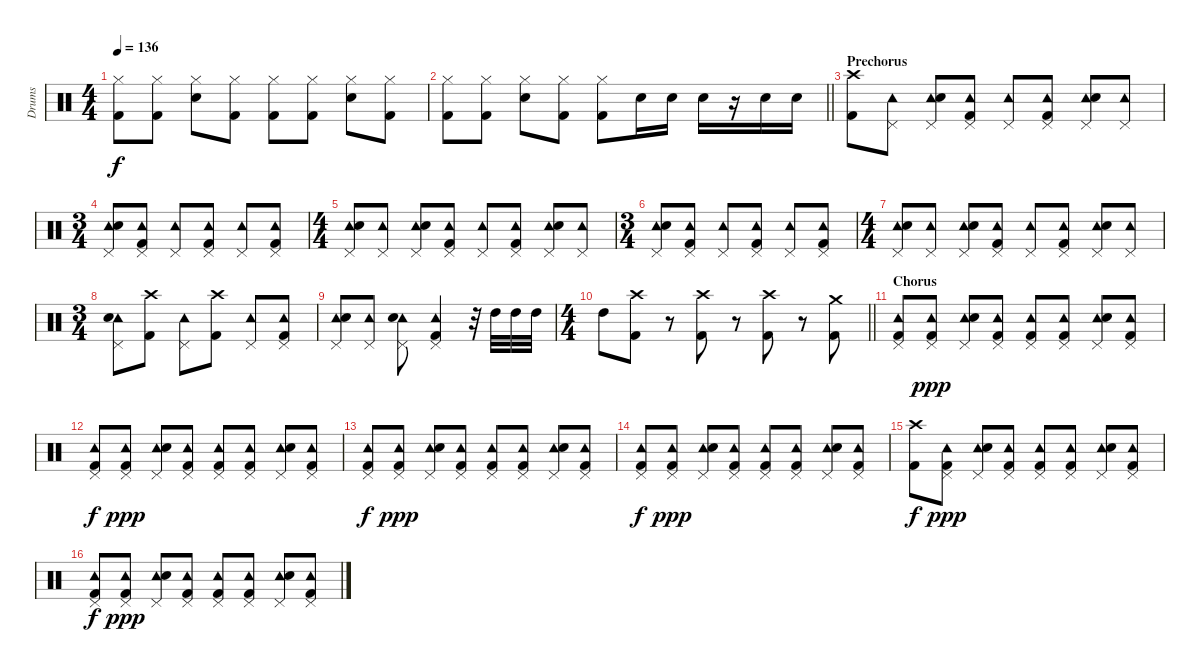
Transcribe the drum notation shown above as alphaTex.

\track ("Drums" "Drums") {instrument percussion}
\staff {score}
\articulation defaults
\ts (4 4)
\tempo 136
\clef neutral
\ks c
("Hi-Hat (closed)" "Kick (hit) 2").8{dy f} ("Hi-Hat (closed)" "Kick (hit) 2").8 ("Hi-Hat (closed)" "Snare (hit) 2").8 ("Hi-Hat (closed)" "Kick (hit) 2").8 ("Hi-Hat (closed)" "Kick (hit) 2").8 ("Hi-Hat (closed)" "Kick (hit) 2").8 ("Hi-Hat (closed)" "Snare (hit) 2").8 ("Hi-Hat (closed)" "Kick (hit) 2").8 |
\barLineRight lightlight
("Hi-Hat (closed)" "Kick (hit) 2").8 ("Hi-Hat (closed)" "Kick (hit) 2").8 ("Hi-Hat (closed)" "Snare (hit) 2").8 ("Hi-Hat (closed)" "Kick (hit) 2").8 ("Hi-Hat (closed)" "Kick (hit) 2").8 "Snare (hit) 2".16 "Snare (hit) 2".16 "Snare (hit) 2".16 r.16 "Snare (hit) 2".16 "Snare (hit) 2".16 |
\section ("" "Prechorus")
("Crash high (hit)" "Kick (hit) 2").8 ("Pedal Hi-Hat (hit)" "Tambourine (hit)").8 ("Pedal Hi-Hat (hit)" "Tambourine (hit)" "Snare (hit) 2").8 ("Pedal Hi-Hat (hit)" "Tambourine (hit)" "Kick (hit) 2").8 ("Pedal Hi-Hat (hit)" "Tambourine (hit)").8 ("Pedal Hi-Hat (hit)" "Tambourine (hit)" "Kick (hit) 2").8 ("Pedal Hi-Hat (hit)" "Tambourine (hit)" "Snare (hit) 2").8 ("Pedal Hi-Hat (hit)" "Tambourine (hit)").8 |
\ts (3 4)
("Pedal Hi-Hat (hit)" "Tambourine (hit)" "Snare (hit) 2").8 ("Pedal Hi-Hat (hit)" "Tambourine (hit)" "Kick (hit) 2").8 ("Pedal Hi-Hat (hit)" "Tambourine (hit)").8 ("Pedal Hi-Hat (hit)" "Tambourine (hit)" "Kick (hit) 2").8 ("Pedal Hi-Hat (hit)" "Tambourine (hit)").8 ("Pedal Hi-Hat (hit)" "Tambourine (hit)" "Kick (hit) 2").8 |
\ts (4 4)
("Pedal Hi-Hat (hit)" "Tambourine (hit)" "Snare (hit) 2").8 ("Pedal Hi-Hat (hit)" "Tambourine (hit)").8 ("Pedal Hi-Hat (hit)" "Tambourine (hit)" "Snare (hit) 2").8 ("Pedal Hi-Hat (hit)" "Tambourine (hit)" "Kick (hit) 2").8 ("Pedal Hi-Hat (hit)" "Tambourine (hit)").8 ("Pedal Hi-Hat (hit)" "Tambourine (hit)" "Kick (hit) 2").8 ("Pedal Hi-Hat (hit)" "Tambourine (hit)" "Snare (hit) 2").8 ("Pedal Hi-Hat (hit)" "Tambourine (hit)").8 |
\ts (3 4)
("Pedal Hi-Hat (hit)" "Tambourine (hit)" "Snare (hit) 2").8 ("Pedal Hi-Hat (hit)" "Tambourine (hit)" "Kick (hit) 2").8 ("Pedal Hi-Hat (hit)" "Tambourine (hit)").8 ("Pedal Hi-Hat (hit)" "Tambourine (hit)" "Kick (hit) 2").8 ("Pedal Hi-Hat (hit)" "Tambourine (hit)").8 ("Pedal Hi-Hat (hit)" "Tambourine (hit)" "Kick (hit) 2").8 |
\ts (4 4)
("Pedal Hi-Hat (hit)" "Tambourine (hit)" "Snare (hit) 2").8 ("Pedal Hi-Hat (hit)" "Tambourine (hit)").8 ("Pedal Hi-Hat (hit)" "Tambourine (hit)" "Snare (hit) 2").8 ("Pedal Hi-Hat (hit)" "Tambourine (hit)" "Kick (hit) 2").8 ("Pedal Hi-Hat (hit)" "Tambourine (hit)").8 ("Pedal Hi-Hat (hit)" "Tambourine (hit)" "Kick (hit) 2").8 ("Pedal Hi-Hat (hit)" "Tambourine (hit)" "Snare (hit) 2").8 ("Pedal Hi-Hat (hit)" "Tambourine (hit)").8 |
\ts (3 4)
("Pedal Hi-Hat (hit)" "Tambourine (hit)" "Snare (hit) 2").8 ("Crash high (hit)" "Kick (hit) 2").8 ("Pedal Hi-Hat (hit)" "Tambourine (hit)").8 ("Crash high (hit)" "Kick (hit) 2").8 ("Pedal Hi-Hat (hit)" "Tambourine (hit)").8 ("Pedal Hi-Hat (hit)" "Tambourine (hit)" "Kick (hit) 2").8 |
("Pedal Hi-Hat (hit)" "Tambourine (hit)" "Snare (hit) 2").8 ("Pedal Hi-Hat (hit)" "Tambourine (hit)").8 ("Pedal Hi-Hat (hit)" "Tambourine (hit)" "Snare (hit) 2").8 ("Pedal Hi-Hat (hit)" "Tambourine (hit)" "Kick (hit) 2").4 r.32 "High Tom (hit)".32 "High Tom (hit)".32 "High Tom (hit)".32 |
\ts (4 4)
\barLineRight lightlight "High Tom (hit)".8
("Crash high (hit)" "Kick (hit) 2").8 r.8 ("Crash high (hit)" "Kick (hit) 2").8 r.8 ("Crash high (hit)" "Kick (hit) 2").8 r.8 ("Crash medium (hit)" "Kick (hit) 2").8 |
\section ("" "Chorus")
("Pedal Hi-Hat (hit)" "Tambourine (hit)" "Kick (hit) 2").8 ("Pedal Hi-Hat (hit)" "Tambourine (hit)" "Kick (hit) 2").8{dy ppp} ("Pedal Hi-Hat (hit)" "Tambourine (hit)" "Snare (hit) 2").8 ("Pedal Hi-Hat (hit)" "Tambourine (hit)" "Kick (hit) 2").8 ("Pedal Hi-Hat (hit)" "Tambourine (hit)" "Kick (hit) 2").8 ("Pedal Hi-Hat (hit)" "Tambourine (hit)" "Kick (hit) 2").8 ("Pedal Hi-Hat (hit)" "Tambourine (hit)" "Snare (hit) 2").8 ("Pedal Hi-Hat (hit)" "Tambourine (hit)" "Kick (hit) 2").8 |
("Pedal Hi-Hat (hit)" "Tambourine (hit)" "Kick (hit) 2").8{dy f} ("Pedal Hi-Hat (hit)" "Tambourine (hit)" "Kick (hit) 2").8{dy ppp} ("Pedal Hi-Hat (hit)" "Tambourine (hit)" "Snare (hit) 2").8 ("Pedal Hi-Hat (hit)" "Tambourine (hit)" "Kick (hit) 2").8 ("Pedal Hi-Hat (hit)" "Tambourine (hit)" "Kick (hit) 2").8 ("Pedal Hi-Hat (hit)" "Tambourine (hit)" "Kick (hit) 2").8 ("Pedal Hi-Hat (hit)" "Tambourine (hit)" "Snare (hit) 2").8 ("Pedal Hi-Hat (hit)" "Tambourine (hit)" "Kick (hit) 2").8 |
("Pedal Hi-Hat (hit)" "Tambourine (hit)" "Kick (hit) 2").8{dy f} ("Pedal Hi-Hat (hit)" "Tambourine (hit)" "Kick (hit) 2").8{dy ppp} ("Pedal Hi-Hat (hit)" "Tambourine (hit)" "Snare (hit) 2").8 ("Pedal Hi-Hat (hit)" "Tambourine (hit)" "Kick (hit) 2").8 ("Pedal Hi-Hat (hit)" "Tambourine (hit)" "Kick (hit) 2").8 ("Pedal Hi-Hat (hit)" "Tambourine (hit)" "Kick (hit) 2").8 ("Pedal Hi-Hat (hit)" "Tambourine (hit)" "Snare (hit) 2").8 ("Pedal Hi-Hat (hit)" "Tambourine (hit)" "Kick (hit) 2").8 |
("Pedal Hi-Hat (hit)" "Tambourine (hit)" "Kick (hit) 2").8{dy f} ("Pedal Hi-Hat (hit)" "Tambourine (hit)" "Kick (hit) 2").8{dy ppp} ("Pedal Hi-Hat (hit)" "Tambourine (hit)" "Snare (hit) 2").8 ("Pedal Hi-Hat (hit)" "Tambourine (hit)" "Kick (hit) 2").8 ("Pedal Hi-Hat (hit)" "Tambourine (hit)" "Kick (hit) 2").8 ("Pedal Hi-Hat (hit)" "Tambourine (hit)" "Kick (hit) 2").8 ("Pedal Hi-Hat (hit)" "Tambourine (hit)" "Snare (hit) 2").8 ("Pedal Hi-Hat (hit)" "Tambourine (hit)" "Kick (hit) 2").8 |
("Crash high (hit)" "Kick (hit) 2").8{dy f} ("Pedal Hi-Hat (hit)" "Tambourine (hit)" "Kick (hit) 2").8{dy ppp} ("Pedal Hi-Hat (hit)" "Tambourine (hit)" "Snare (hit) 2").8 ("Pedal Hi-Hat (hit)" "Tambourine (hit)" "Kick (hit) 2").8 ("Pedal Hi-Hat (hit)" "Tambourine (hit)" "Kick (hit) 2").8 ("Pedal Hi-Hat (hit)" "Tambourine (hit)" "Kick (hit) 2").8 ("Pedal Hi-Hat (hit)" "Tambourine (hit)" "Snare (hit) 2").8 ("Pedal Hi-Hat (hit)" "Tambourine (hit)" "Kick (hit) 2").8 |
("Pedal Hi-Hat (hit)" "Tambourine (hit)" "Kick (hit) 2").8{dy f} ("Pedal Hi-Hat (hit)" "Tambourine (hit)" "Kick (hit) 2").8{dy ppp} ("Pedal Hi-Hat (hit)" "Tambourine (hit)" "Snare (hit) 2").8 ("Pedal Hi-Hat (hit)" "Tambourine (hit)" "Kick (hit) 2").8 ("Pedal Hi-Hat (hit)" "Tambourine (hit)" "Kick (hit) 2").8 ("Pedal Hi-Hat (hit)" "Tambourine (hit)" "Kick (hit) 2").8 ("Pedal Hi-Hat (hit)" "Tambourine (hit)" "Snare (hit) 2").8 ("Pedal Hi-Hat (hit)" "Tambourine (hit)" "Kick (hit) 2").8
